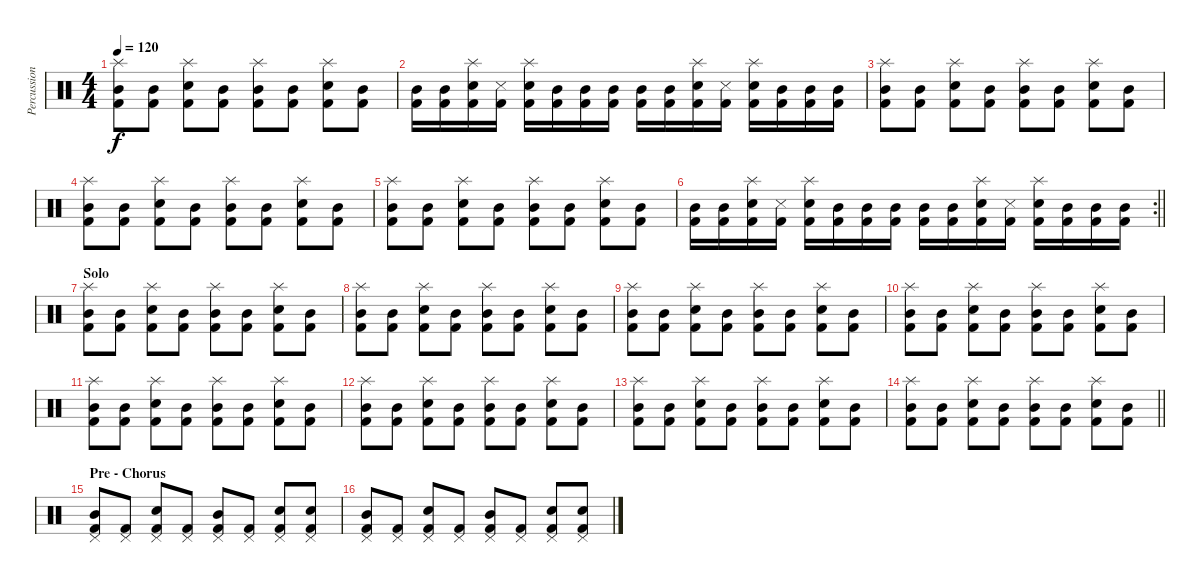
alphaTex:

\track ("Percussion" "Percussion") {instrument percussion}
\staff {score}
\articulation defaults
\ts (4 4)
\tempo 120
\clef neutral
\ks c
("Splash (hit)" "Mid Tom (hit)" "Kick (hit) 2").8{dy f} ("Mid Tom (hit)" "Kick (hit) 2").8 ("Splash (hit)" "Electric Snare (hit)" "Kick (hit) 2").8 ("Mid Tom (hit)" "Kick (hit) 2").8 ("Splash (hit)" "Mid Tom (hit)" "Kick (hit) 2").8 ("Mid Tom (hit)" "Kick (hit) 2").8 ("Splash (hit)" "Electric Snare (hit)" "Kick (hit) 2").8 ("Mid Tom (hit)" "Kick (hit) 2").8 |
("Mid Tom (hit)" "Kick (hit) 2").16 ("Mid Tom (hit)" "Kick (hit) 2").16 ("Splash (hit)" "Electric Snare (hit)" "Kick (hit) 2").16 ("Metronome (hit)" "Kick (hit) 2").16 ("Splash (hit)" "Snare (hit)" "Kick (hit) 2").16 ("Mid Tom (hit)" "Kick (hit) 2").16 ("Mid Tom (hit)" "Kick (hit) 2").16 ("Mid Tom (hit)" "Kick (hit) 2").16 ("Mid Tom (hit)" "Kick (hit) 2").16 ("Mid Tom (hit)" "Kick (hit) 2").16 ("Splash (hit)" "Electric Snare (hit)" "Kick (hit) 2").16 ("Metronome (hit)" "Kick (hit) 2").16 ("Splash (hit)" "Snare (hit)" "Kick (hit) 2").16 ("Mid Tom (hit)" "Kick (hit) 2").16 ("Mid Tom (hit)" "Kick (hit) 2").16 ("Mid Tom (hit)" "Kick (hit) 2").16 |
("Splash (hit)" "Mid Tom (hit)" "Kick (hit) 2").8 ("Mid Tom (hit)" "Kick (hit) 2").8 ("Splash (hit)" "Electric Snare (hit)" "Kick (hit) 2").8 ("Mid Tom (hit)" "Kick (hit) 2").8 ("Splash (hit)" "Mid Tom (hit)" "Kick (hit) 2").8 ("Mid Tom (hit)" "Kick (hit) 2").8 ("Splash (hit)" "Electric Snare (hit)" "Kick (hit) 2").8 ("Mid Tom (hit)" "Kick (hit) 2").8 |
("Splash (hit)" "Mid Tom (hit)" "Kick (hit) 2").8 ("Mid Tom (hit)" "Kick (hit) 2").8 ("Splash (hit)" "Electric Snare (hit)" "Kick (hit) 2").8 ("Mid Tom (hit)" "Kick (hit) 2").8 ("Splash (hit)" "Mid Tom (hit)" "Kick (hit) 2").8 ("Mid Tom (hit)" "Kick (hit) 2").8 ("Splash (hit)" "Electric Snare (hit)" "Kick (hit) 2").8 ("Mid Tom (hit)" "Kick (hit) 2").8 |
("Splash (hit)" "Mid Tom (hit)" "Kick (hit) 2").8 ("Mid Tom (hit)" "Kick (hit) 2").8 ("Splash (hit)" "Electric Snare (hit)" "Kick (hit) 2").8 ("Mid Tom (hit)" "Kick (hit) 2").8 ("Splash (hit)" "Mid Tom (hit)" "Kick (hit) 2").8 ("Mid Tom (hit)" "Kick (hit) 2").8 ("Splash (hit)" "Electric Snare (hit)" "Kick (hit) 2").8 ("Mid Tom (hit)" "Kick (hit) 2").8 |
\rc 2
\barLineRight lightlight
("Mid Tom (hit)" "Kick (hit) 2").16 ("Mid Tom (hit)" "Kick (hit) 2").16 ("Splash (hit)" "Electric Snare (hit)" "Kick (hit) 2").16 ("Metronome (hit)" "Kick (hit) 2").16 ("Splash (hit)" "Snare (hit)" "Kick (hit) 2").16 ("Mid Tom (hit)" "Kick (hit) 2").16 ("Mid Tom (hit)" "Kick (hit) 2").16 ("Mid Tom (hit)" "Kick (hit) 2").16 ("Mid Tom (hit)" "Kick (hit) 2").16 ("Mid Tom (hit)" "Kick (hit) 2").16 ("Splash (hit)" "Electric Snare (hit)" "Kick (hit) 2").16 ("Metronome (hit)" "Kick (hit) 2").16 ("Splash (hit)" "Snare (hit)" "Kick (hit) 2").16 ("Mid Tom (hit)" "Kick (hit) 2").16 ("Mid Tom (hit)" "Kick (hit) 2").16 ("Mid Tom (hit)" "Kick (hit) 2").16 |
\section ("" "Solo")
("Splash (hit)" "Mid Tom (hit)" "Kick (hit) 2").8 ("Mid Tom (hit)" "Kick (hit) 2").8 ("Splash (hit)" "Electric Snare (hit)" "Kick (hit) 2").8 ("Mid Tom (hit)" "Kick (hit) 2").8 ("Splash (hit)" "Mid Tom (hit)" "Kick (hit) 2").8 ("Mid Tom (hit)" "Kick (hit) 2").8 ("Splash (hit)" "Electric Snare (hit)" "Kick (hit) 2").8 ("Mid Tom (hit)" "Kick (hit) 2").8 |
("Splash (hit)" "Mid Tom (hit)" "Kick (hit) 2").8 ("Mid Tom (hit)" "Kick (hit) 2").8 ("Splash (hit)" "Electric Snare (hit)" "Kick (hit) 2").8 ("Mid Tom (hit)" "Kick (hit) 2").8 ("Splash (hit)" "Mid Tom (hit)" "Kick (hit) 2").8 ("Mid Tom (hit)" "Kick (hit) 2").8 ("Splash (hit)" "Electric Snare (hit)" "Kick (hit) 2").8 ("Mid Tom (hit)" "Kick (hit) 2").8 |
("Splash (hit)" "Mid Tom (hit)" "Kick (hit) 2").8 ("Mid Tom (hit)" "Kick (hit) 2").8 ("Splash (hit)" "Electric Snare (hit)" "Kick (hit) 2").8 ("Mid Tom (hit)" "Kick (hit) 2").8 ("Splash (hit)" "Mid Tom (hit)" "Kick (hit) 2").8 ("Mid Tom (hit)" "Kick (hit) 2").8 ("Splash (hit)" "Electric Snare (hit)" "Kick (hit) 2").8 ("Mid Tom (hit)" "Kick (hit) 2").8 |
("Splash (hit)" "Mid Tom (hit)" "Kick (hit) 2").8 ("Mid Tom (hit)" "Kick (hit) 2").8 ("Splash (hit)" "Electric Snare (hit)" "Kick (hit) 2").8 ("Mid Tom (hit)" "Kick (hit) 2").8 ("Splash (hit)" "Mid Tom (hit)" "Kick (hit) 2").8 ("Mid Tom (hit)" "Kick (hit) 2").8 ("Splash (hit)" "Electric Snare (hit)" "Kick (hit) 2").8 ("Mid Tom (hit)" "Kick (hit) 2").8 |
("Splash (hit)" "Mid Tom (hit)" "Kick (hit) 2").8 ("Mid Tom (hit)" "Kick (hit) 2").8 ("Splash (hit)" "Electric Snare (hit)" "Kick (hit) 2").8 ("Mid Tom (hit)" "Kick (hit) 2").8 ("Splash (hit)" "Mid Tom (hit)" "Kick (hit) 2").8 ("Mid Tom (hit)" "Kick (hit) 2").8 ("Splash (hit)" "Electric Snare (hit)" "Kick (hit) 2").8 ("Mid Tom (hit)" "Kick (hit) 2").8 |
("Splash (hit)" "Mid Tom (hit)" "Kick (hit) 2").8 ("Mid Tom (hit)" "Kick (hit) 2").8 ("Splash (hit)" "Electric Snare (hit)" "Kick (hit) 2").8 ("Mid Tom (hit)" "Kick (hit) 2").8 ("Splash (hit)" "Mid Tom (hit)" "Kick (hit) 2").8 ("Mid Tom (hit)" "Kick (hit) 2").8 ("Splash (hit)" "Electric Snare (hit)" "Kick (hit) 2").8 ("Mid Tom (hit)" "Kick (hit) 2").8 |
("Splash (hit)" "Mid Tom (hit)" "Kick (hit) 2").8 ("Mid Tom (hit)" "Kick (hit) 2").8 ("Splash (hit)" "Electric Snare (hit)" "Kick (hit) 2").8 ("Mid Tom (hit)" "Kick (hit) 2").8 ("Splash (hit)" "Mid Tom (hit)" "Kick (hit) 2").8 ("Mid Tom (hit)" "Kick (hit) 2").8 ("Splash (hit)" "Electric Snare (hit)" "Kick (hit) 2").8 ("Mid Tom (hit)" "Kick (hit) 2").8 |
\barLineRight lightlight
("Splash (hit)" "Mid Tom (hit)" "Kick (hit) 2").8 ("Mid Tom (hit)" "Kick (hit) 2").8 ("Splash (hit)" "Electric Snare (hit)" "Kick (hit) 2").8 ("Mid Tom (hit)" "Kick (hit) 2").8 ("Splash (hit)" "Mid Tom (hit)" "Kick (hit) 2").8 ("Mid Tom (hit)" "Kick (hit) 2").8 ("Splash (hit)" "Electric Snare (hit)" "Kick (hit) 2").8 ("Mid Tom (hit)" "Kick (hit) 2").8 |
\section ("" "Pre - Chorus")
("Pedal Hi-Hat (hit)" "Mid Tom (hit)" "Kick (hit) 2").8 ("Pedal Hi-Hat (hit)" "Kick (hit) 2").8 ("Pedal Hi-Hat (hit)" "Electric Snare (hit)" "Kick (hit) 2").8 ("Pedal Hi-Hat (hit)" "Kick (hit) 2").8 ("Pedal Hi-Hat (hit)" "Mid Tom (hit)" "Kick (hit) 2").8 ("Pedal Hi-Hat (hit)" "Kick (hit) 2").8 ("Pedal Hi-Hat (hit)" "Electric Snare (hit)" "Kick (hit) 2").8 ("Pedal Hi-Hat (hit)" "Electric Snare (hit)" "Kick (hit) 2").8 |
("Pedal Hi-Hat (hit)" "Mid Tom (hit)" "Kick (hit) 2").8 ("Pedal Hi-Hat (hit)" "Kick (hit) 2").8 ("Pedal Hi-Hat (hit)" "Electric Snare (hit)" "Kick (hit) 2").8 ("Pedal Hi-Hat (hit)" "Kick (hit) 2").8 ("Pedal Hi-Hat (hit)" "Mid Tom (hit)" "Kick (hit) 2").8 ("Pedal Hi-Hat (hit)" "Kick (hit) 2").8 ("Pedal Hi-Hat (hit)" "Electric Snare (hit)" "Kick (hit) 2").8 ("Pedal Hi-Hat (hit)" "Electric Snare (hit)" "Kick (hit) 2").8
